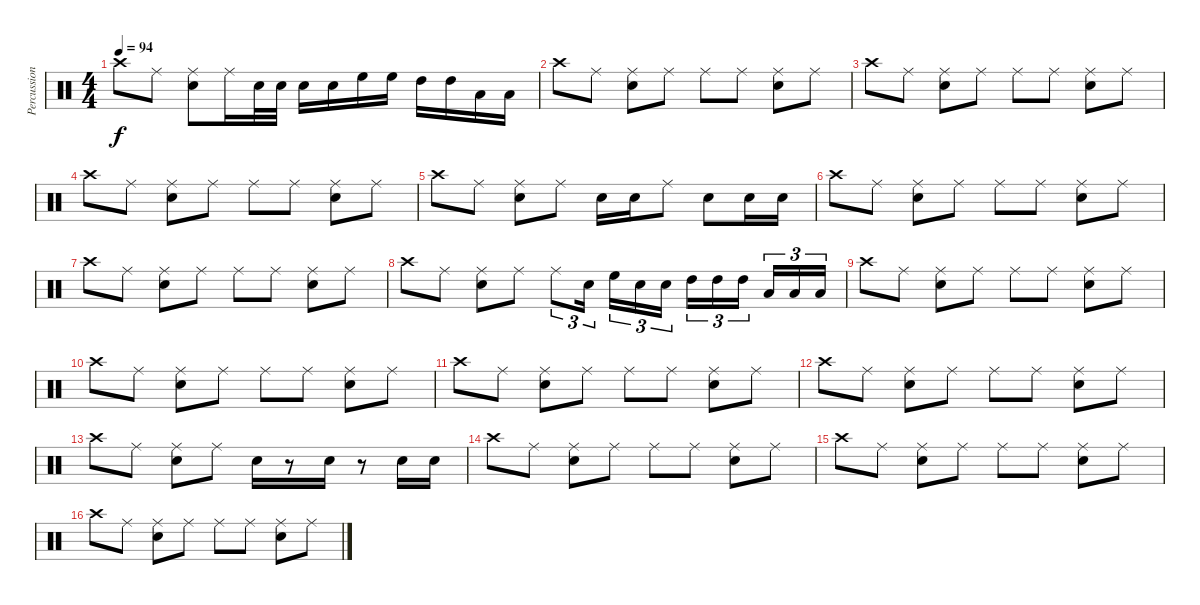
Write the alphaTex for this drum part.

\track ("Percussion" "Percussion") {instrument percussion}
\staff {score}
\articulation defaults
\ts (4 4)
\tempo 94
\clef neutral
\ks c "Crash high (hit)".8{dy f} "Ride (middle)".8
("Ride (middle)" "Snare (hit) 2").8 "Ride (middle)".16 "Snare (hit) 2".32 "Snare (hit) 2".32 "Snare (hit) 2".16 "Snare (hit) 2".16 "High Floor Tom (hit)".16 "High Floor Tom (hit)".16 "High Tom (hit)".16 "High Tom (hit)".16 "Low Tom (hit)".16 "Low Tom (hit)".16 |
"Crash high (hit)".8 "Ride (middle)".8 ("Ride (middle)" "Snare (hit) 2").8 "Ride (middle)".8 "Ride (middle)".8 "Ride (middle)".8 ("Ride (middle)" "Snare (hit) 2").8 "Ride (middle)".8 |
"Crash high (hit)".8 "Ride (middle)".8 ("Ride (middle)" "Snare (hit) 2").8 "Ride (middle)".8 "Ride (middle)".8 "Ride (middle)".8 ("Ride (middle)" "Snare (hit) 2").8 "Ride (middle)".8 |
"Crash high (hit)".8 "Ride (middle)".8 ("Ride (middle)" "Snare (hit) 2").8 "Ride (middle)".8 "Ride (middle)".8 "Ride (middle)".8 ("Ride (middle)" "Snare (hit) 2").8 "Ride (middle)".8 |
"Crash high (hit)".8 "Ride (middle)".8 ("Ride (middle)" "Snare (hit) 2").8 "Ride (middle)".8 "Snare (hit) 2".16 "Snare (hit) 2".16 "Ride (middle)".8 "Snare (hit) 2".8 "Snare (hit) 2".16 "Snare (hit) 2".16 |
"Crash high (hit)".8 "Ride (middle)".8 ("Ride (middle)" "Snare (hit) 2").8 "Ride (middle)".8 "Ride (middle)".8 "Ride (middle)".8 ("Ride (middle)" "Snare (hit) 2").8 "Ride (middle)".8 |
"Crash high (hit)".8 "Ride (middle)".8 ("Ride (middle)" "Snare (hit) 2").8 "Ride (middle)".8 "Ride (middle)".8 "Ride (middle)".8 ("Ride (middle)" "Snare (hit) 2").8 "Ride (middle)".8 |
"Crash high (hit)".8 "Ride (middle)".8 ("Ride (middle)" "Snare (hit) 2").8 "Ride (middle)".8 "Ride (middle)".8{tu (3 2)} "Snare (hit) 2".16{tu (3 2)} "High Floor Tom (hit)".16{tu (3 2)} "Snare (hit) 2".16{tu (3 2)} "Snare (hit) 2".16{tu (3 2)} "High Tom (hit)".16{tu (3 2)} "High Tom (hit)".16{tu (3 2)} "High Tom (hit)".16{tu (3 2)} "Low Tom (hit)".16{tu (3 2)} "Low Tom (hit)".16{tu (3 2)} "Low Tom (hit)".16{tu (3 2)} |
"Crash high (hit)".8 "Ride (middle)".8 ("Ride (middle)" "Snare (hit) 2").8 "Ride (middle)".8 "Ride (middle)".8 "Ride (middle)".8 ("Ride (middle)" "Snare (hit) 2").8 "Ride (middle)".8 |
"Crash high (hit)".8 "Ride (middle)".8 ("Ride (middle)" "Snare (hit) 2").8 "Ride (middle)".8 "Ride (middle)".8 "Ride (middle)".8 ("Ride (middle)" "Snare (hit) 2").8 "Ride (middle)".8 |
"Crash high (hit)".8 "Ride (middle)".8 ("Ride (middle)" "Snare (hit) 2").8 "Ride (middle)".8 "Ride (middle)".8 "Ride (middle)".8 ("Ride (middle)" "Snare (hit) 2").8 "Ride (middle)".8 |
"Crash high (hit)".8 "Ride (middle)".8 ("Ride (middle)" "Snare (hit) 2").8 "Ride (middle)".8 "Ride (middle)".8 "Ride (middle)".8 ("Ride (middle)" "Snare (hit) 2").8 "Ride (middle)".8 |
"Crash high (hit)".8 "Ride (middle)".8 ("Ride (middle)" "Snare (hit) 2").8 "Ride (middle)".8 "Snare (hit) 2".16 r.8 "Snare (hit) 2".16 r.8 "Snare (hit) 2".16 "Snare (hit) 2".16 |
"Crash high (hit)".8 "Ride (middle)".8 ("Ride (middle)" "Snare (hit) 2").8 "Ride (middle)".8 "Ride (middle)".8 "Ride (middle)".8 ("Ride (middle)" "Snare (hit) 2").8 "Ride (middle)".8 |
"Crash high (hit)".8 "Ride (middle)".8 ("Ride (middle)" "Snare (hit) 2").8 "Ride (middle)".8 "Ride (middle)".8 "Ride (middle)".8 ("Ride (middle)" "Snare (hit) 2").8 "Ride (middle)".8 |
"Crash high (hit)".8 "Ride (middle)".8 ("Ride (middle)" "Snare (hit) 2").8 "Ride (middle)".8 "Ride (middle)".8 "Ride (middle)".8 ("Ride (middle)" "Snare (hit) 2").8 "Ride (middle)".8
